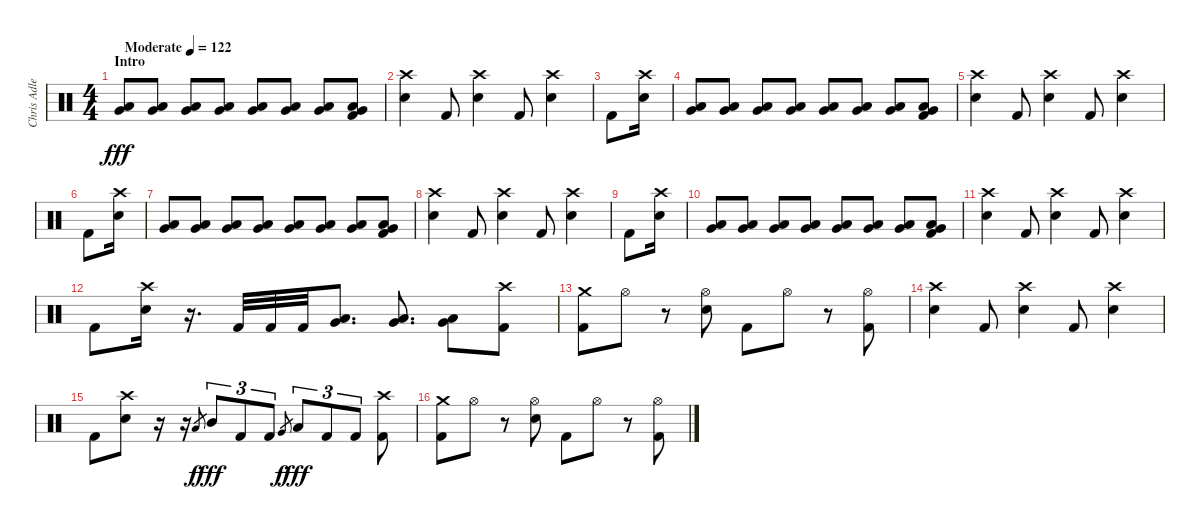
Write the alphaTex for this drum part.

\track ("Chris Adler" "Chris Adle") {instrument percussion}
\staff {score}
\articulation defaults
\ts (4 4)
\section ("" "Intro")
\tempo (122 "Moderate")
\clef neutral
\ks c
("Low Tom (hit)" "Very Low Tom (hit)").8{dy fff} ("Low Tom (hit)" "Very Low Tom (hit)").8 ("Low Tom (hit)" "Very Low Tom (hit)").8 ("Low Tom (hit)" "Very Low Tom (hit)").8 ("Low Tom (hit)" "Very Low Tom (hit)").8 ("Low Tom (hit)" "Very Low Tom (hit)").8 ("Low Tom (hit)" "Very Low Tom (hit)").8 ("Low Tom (hit)" "Very Low Tom (hit)" "Kick (hit) 2").8 |
("Crash high (hit)" "Snare (hit) 2").4 "Kick (hit) 2".8 ("Crash high (hit)" "Snare (hit) 2").4 "Kick (hit) 2".8 ("Crash high (hit)" "Snare (hit) 2").4 |
"Kick (hit) 2".8 ("Crash high (hit)" "Snare (hit) 2").16 |
("Low Tom (hit)" "Very Low Tom (hit)").8 ("Low Tom (hit)" "Very Low Tom (hit)").8 ("Low Tom (hit)" "Very Low Tom (hit)").8 ("Low Tom (hit)" "Very Low Tom (hit)").8 ("Low Tom (hit)" "Very Low Tom (hit)").8 ("Low Tom (hit)" "Very Low Tom (hit)").8 ("Low Tom (hit)" "Very Low Tom (hit)").8 ("Low Tom (hit)" "Very Low Tom (hit)" "Kick (hit) 2").8 |
("Crash high (hit)" "Snare (hit) 2").4 "Kick (hit) 2".8 ("Crash high (hit)" "Snare (hit) 2").4 "Kick (hit) 2".8 ("Crash high (hit)" "Snare (hit) 2").4 |
"Kick (hit) 2".8 ("Crash high (hit)" "Snare (hit) 2").16 |
("Low Tom (hit)" "Very Low Tom (hit)").8 ("Low Tom (hit)" "Very Low Tom (hit)").8 ("Low Tom (hit)" "Very Low Tom (hit)").8 ("Low Tom (hit)" "Very Low Tom (hit)").8 ("Low Tom (hit)" "Very Low Tom (hit)").8 ("Low Tom (hit)" "Very Low Tom (hit)").8 ("Low Tom (hit)" "Very Low Tom (hit)").8 ("Low Tom (hit)" "Very Low Tom (hit)" "Kick (hit) 2").8 |
("Crash high (hit)" "Snare (hit) 2").4 "Kick (hit) 2".8 ("Crash high (hit)" "Snare (hit) 2").4 "Kick (hit) 2".8 ("Crash high (hit)" "Snare (hit) 2").4 |
"Kick (hit) 2".8 ("Crash high (hit)" "Snare (hit) 2").16 |
("Low Tom (hit)" "Very Low Tom (hit)").8 ("Low Tom (hit)" "Very Low Tom (hit)").8 ("Low Tom (hit)" "Very Low Tom (hit)").8 ("Low Tom (hit)" "Very Low Tom (hit)").8 ("Low Tom (hit)" "Very Low Tom (hit)").8 ("Low Tom (hit)" "Very Low Tom (hit)").8 ("Low Tom (hit)" "Very Low Tom (hit)").8 ("Low Tom (hit)" "Very Low Tom (hit)" "Kick (hit) 2").8 |
("Crash high (hit)" "Snare (hit) 2").4 "Kick (hit) 2".8 ("Crash high (hit)" "Snare (hit) 2").4 "Kick (hit) 2".8 ("Crash high (hit)" "Snare (hit) 2").4 |
"Kick (hit) 2".8 ("Crash high (hit)" "Snare (hit) 2").16 r.16{d} "Kick (hit) 2".32 "Kick (hit) 2".32 "Kick (hit) 2".32 ("Low Tom (hit)" "Very Low Tom (hit)").8{d} ("Low Tom (hit)" "Very Low Tom (hit)").8{d} ("Low Tom (hit)" "Very Low Tom (hit)").8 ("Crash high (hit)" "Kick (hit) 2").8 |
("Crash medium (hit)" "Kick (hit) 2").8 "Hi-Hat (open)".8 r.8 ("Hi-Hat (open)" "Snare (hit) 2").8 "Kick (hit) 2".8 "Hi-Hat (open)".8 r.8 ("Hi-Hat (open)" "Kick (hit) 2").8 |
("Crash high (hit)" "Snare (hit) 2").4 "Kick (hit) 2".8 ("Crash high (hit)" "Snare (hit) 2").4 "Kick (hit) 2".8 ("Crash high (hit)" "Snare (hit) 2").4 |
"Kick (hit) 2".8 ("Crash high (hit)" "Snare (hit) 2").8 r.16 r.16 "Low Tom (hit)".8{gr dy f} "Mid Tom (hit)".8{tu (3 2) dy fff} "Kick (hit) 2".8{tu (3 2)} "Kick (hit) 2".8{tu (3 2)} "Very Low Tom (hit)".8{gr dy f} "Low Tom (hit)".8{tu (3 2) dy fff} "Kick (hit) 2".8{tu (3 2)} "Kick (hit) 2".8{tu (3 2)} ("Crash high (hit)" "Kick (hit) 2").8 |
("Crash medium (hit)" "Kick (hit) 2").8 "Hi-Hat (open)".8 r.8 ("Hi-Hat (open)" "Snare (hit) 2").8 "Kick (hit) 2".8 "Hi-Hat (open)".8 r.8 ("Hi-Hat (open)" "Kick (hit) 2").8
